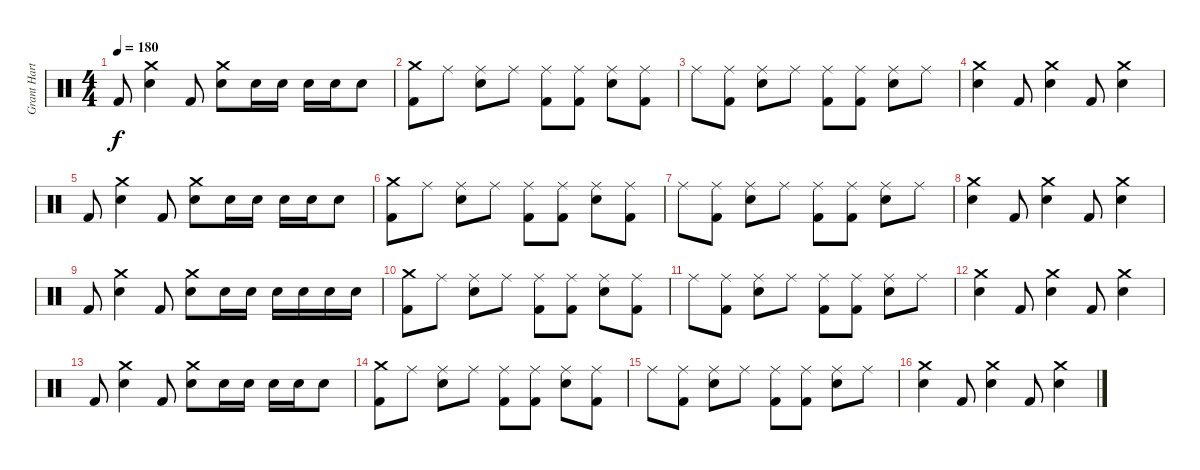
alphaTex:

\track ("Grant Hart - Drums" "Grant Hart") {instrument percussion}
\staff {score}
\articulation defaults
\ts (4 4)
\tempo 180
\clef neutral
\ks c "Kick (hit) 2".8{dy f}
("Crash medium (hit)" "Electric Snare (hit)").4 "Kick (hit) 2".8 ("Crash medium (hit)" "Electric Snare (hit)").8 "Electric Snare (hit)".16 "Electric Snare (hit)".16 "Electric Snare (hit)".16 "Electric Snare (hit)".16 "Electric Snare (hit)".8 |
("Crash medium (hit)" "Kick (hit) 2").8 "Ride (middle)".8 ("Ride (middle)" "Electric Snare (hit)").8 "Ride (middle)".8 ("Ride (middle)" "Kick (hit) 2").8 ("Ride (middle)" "Kick (hit) 2").8 ("Ride (middle)" "Electric Snare (hit)").8 ("Ride (middle)" "Kick (hit) 2").8 |
"Ride (middle)".8 ("Ride (middle)" "Kick (hit) 2").8 ("Ride (middle)" "Electric Snare (hit)").8 "Ride (middle)".8 ("Ride (middle)" "Kick (hit) 2").8 ("Ride (middle)" "Kick (hit) 2").8 ("Ride (middle)" "Electric Snare (hit)").8 "Ride (middle)".8 |
("Crash medium (hit)" "Electric Snare (hit)").4 "Kick (hit) 2".8 ("Crash medium (hit)" "Electric Snare (hit)").4 "Kick (hit) 2".8 ("Crash medium (hit)" "Electric Snare (hit)").4 |
"Kick (hit) 2".8 ("Crash medium (hit)" "Electric Snare (hit)").4 "Kick (hit) 2".8 ("Crash medium (hit)" "Electric Snare (hit)").8 "Electric Snare (hit)".16 "Electric Snare (hit)".16 "Electric Snare (hit)".16 "Electric Snare (hit)".16 "Electric Snare (hit)".8 |
("Crash medium (hit)" "Kick (hit) 2").8 "Ride (middle)".8 ("Ride (middle)" "Electric Snare (hit)").8 "Ride (middle)".8 ("Ride (middle)" "Kick (hit) 2").8 ("Ride (middle)" "Kick (hit) 2").8 ("Ride (middle)" "Electric Snare (hit)").8 ("Ride (middle)" "Kick (hit) 2").8 |
"Ride (middle)".8 ("Ride (middle)" "Kick (hit) 2").8 ("Ride (middle)" "Electric Snare (hit)").8 "Ride (middle)".8 ("Ride (middle)" "Kick (hit) 2").8 ("Ride (middle)" "Kick (hit) 2").8 ("Ride (middle)" "Electric Snare (hit)").8 "Ride (middle)".8 |
("Crash medium (hit)" "Electric Snare (hit)").4 "Kick (hit) 2".8 ("Crash medium (hit)" "Electric Snare (hit)").4 "Kick (hit) 2".8 ("Crash medium (hit)" "Electric Snare (hit)").4 |
"Kick (hit) 2".8 ("Crash medium (hit)" "Electric Snare (hit)").4 "Kick (hit) 2".8 ("Crash medium (hit)" "Electric Snare (hit)").8 "Electric Snare (hit)".16 "Electric Snare (hit)".16 "Electric Snare (hit)".16 "Electric Snare (hit)".16 "Electric Snare (hit)".16 "Electric Snare (hit)".16 |
("Crash medium (hit)" "Kick (hit) 2").8 "Ride (middle)".8 ("Ride (middle)" "Electric Snare (hit)").8 "Ride (middle)".8 ("Ride (middle)" "Kick (hit) 2").8 ("Ride (middle)" "Kick (hit) 2").8 ("Ride (middle)" "Electric Snare (hit)").8 ("Ride (middle)" "Kick (hit) 2").8 |
"Ride (middle)".8 ("Ride (middle)" "Kick (hit) 2").8 ("Ride (middle)" "Electric Snare (hit)").8 "Ride (middle)".8 ("Ride (middle)" "Kick (hit) 2").8 ("Ride (middle)" "Kick (hit) 2").8 ("Ride (middle)" "Electric Snare (hit)").8 "Ride (middle)".8 |
("Crash medium (hit)" "Electric Snare (hit)").4 "Kick (hit) 2".8 ("Crash medium (hit)" "Electric Snare (hit)").4 "Kick (hit) 2".8 ("Crash medium (hit)" "Electric Snare (hit)").4 |
"Kick (hit) 2".8 ("Crash medium (hit)" "Electric Snare (hit)").4 "Kick (hit) 2".8 ("Crash medium (hit)" "Electric Snare (hit)").8 "Electric Snare (hit)".16 "Electric Snare (hit)".16 "Electric Snare (hit)".16 "Electric Snare (hit)".16 "Electric Snare (hit)".8 |
("Crash medium (hit)" "Kick (hit) 2").8 "Ride (middle)".8 ("Ride (middle)" "Electric Snare (hit)").8 "Ride (middle)".8 ("Ride (middle)" "Kick (hit) 2").8 ("Ride (middle)" "Kick (hit) 2").8 ("Ride (middle)" "Electric Snare (hit)").8 ("Ride (middle)" "Kick (hit) 2").8 |
"Ride (middle)".8 ("Ride (middle)" "Kick (hit) 2").8 ("Ride (middle)" "Electric Snare (hit)").8 "Ride (middle)".8 ("Ride (middle)" "Kick (hit) 2").8 ("Ride (middle)" "Kick (hit) 2").8 ("Ride (middle)" "Electric Snare (hit)").8 "Ride (middle)".8 |
("Crash medium (hit)" "Electric Snare (hit)").4 "Kick (hit) 2".8 ("Crash medium (hit)" "Electric Snare (hit)").4 "Kick (hit) 2".8 ("Crash medium (hit)" "Electric Snare (hit)").4
